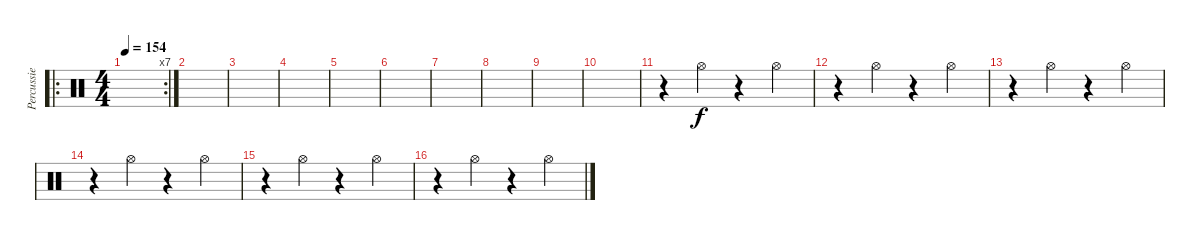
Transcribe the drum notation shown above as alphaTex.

\track ("Percussie" "Percussie") {instrument percussion}
\staff {score}
\articulation defaults
\ro
\rc 7
\ts (4 4)
\tempo 154
\clef neutral
\ks c
|
|
|
|
|
|
|
|
|
|
r.4 "Hi-Hat (open)".4 r.4 "Hi-Hat (open)".4 |
r.4 "Hi-Hat (open)".4 r.4 "Hi-Hat (open)".4 |
r.4 "Hi-Hat (open)".4 r.4 "Hi-Hat (open)".4 |
r.4 "Hi-Hat (open)".4 r.4 "Hi-Hat (open)".4 |
r.4 "Hi-Hat (open)".4 r.4 "Hi-Hat (open)".4 |
r.4 "Hi-Hat (open)".4 r.4 "Hi-Hat (open)".4
